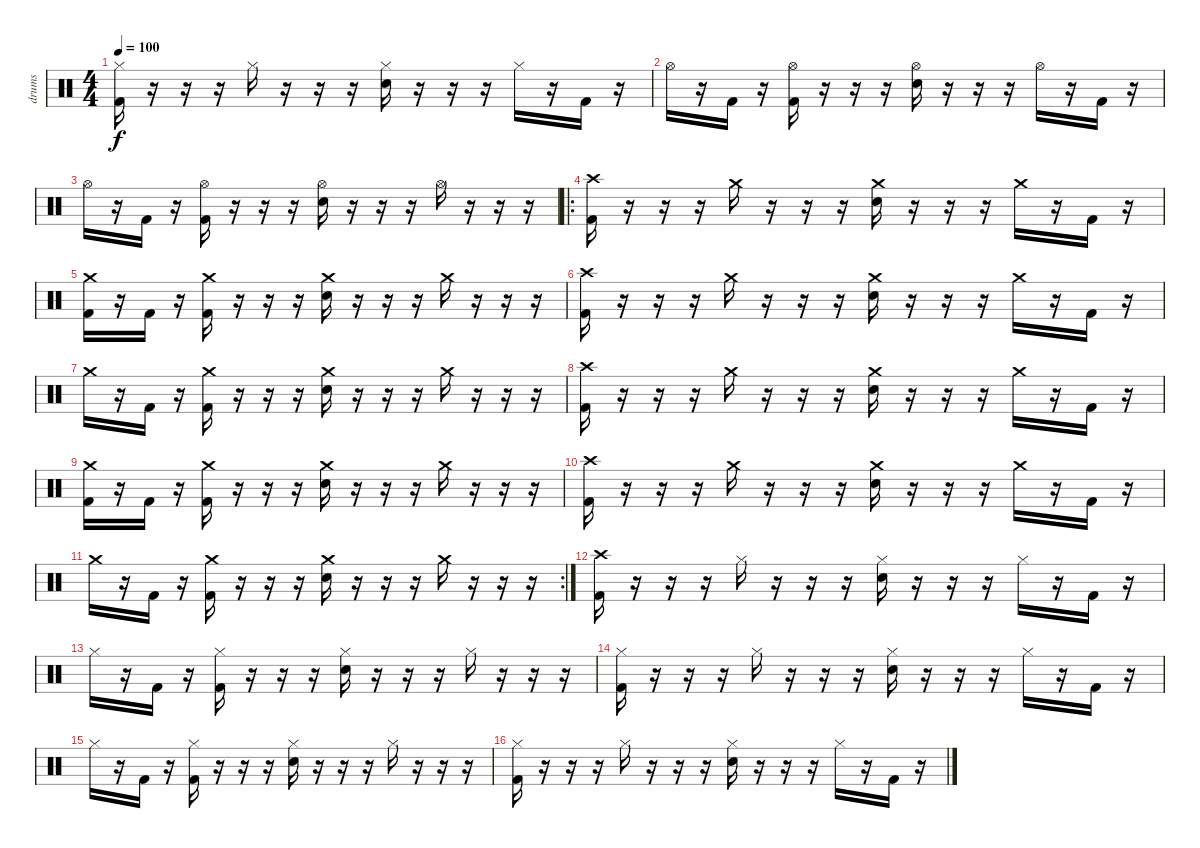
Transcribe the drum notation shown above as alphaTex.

\track ("drums" "drums") {instrument percussion}
\staff {score}
\articulation defaults
\ts (4 4)
\tempo 100
\clef neutral
\ks c
("Hi-Hat (closed)" "Kick (hit) 2").16{dy f} r.16 r.16 r.16 "Hi-Hat (closed)".16 r.16 r.16 r.16 ("Hi-Hat (closed)" "Snare (hit) 2").16 r.16 r.16 r.16 "Hi-Hat (closed)".16 r.16 "Kick (hit) 2".16 r.16 |
"Hi-Hat (open)".16 r.16 "Kick (hit) 2".16 r.16 ("Hi-Hat (open)" "Kick (hit) 2").16 r.16 r.16 r.16 ("Hi-Hat (open)" "Snare (hit) 2").16 r.16 r.16 r.16 "Hi-Hat (open)".16 r.16 "Kick (hit) 2".16 r.16 |
"Hi-Hat (open)".16 r.16 "Kick (hit) 2".16 r.16 ("Hi-Hat (open)" "Kick (hit) 2").16 r.16 r.16 r.16 ("Hi-Hat (open)" "Snare (hit) 2").16 r.16 r.16 r.16 "Hi-Hat (open)".16 r.16 r.16 r.16 |
\ro
("Crash high (hit)" "Kick (hit) 2").16 r.16 r.16 r.16 "Crash medium (hit)".16 r.16 r.16 r.16 ("Crash medium (hit)" "Snare (hit) 2").16 r.16 r.16 r.16 "Crash medium (hit)".16 r.16 "Kick (hit) 2".16 r.16 |
("Crash medium (hit)" "Kick (hit) 2").16 r.16 "Kick (hit) 2".16 r.16 ("Crash medium (hit)" "Kick (hit) 2").16 r.16 r.16 r.16 ("Crash medium (hit)" "Snare (hit) 2").16 r.16 r.16 r.16 "Crash medium (hit)".16 r.16 r.16 r.16 |
("Crash high (hit)" "Kick (hit) 2").16 r.16 r.16 r.16 "Crash medium (hit)".16 r.16 r.16 r.16 ("Crash medium (hit)" "Snare (hit) 2").16 r.16 r.16 r.16 "Crash medium (hit)".16 r.16 "Kick (hit) 2".16 r.16 |
"Crash medium (hit)".16 r.16 "Kick (hit) 2".16 r.16 ("Crash medium (hit)" "Kick (hit) 2").16 r.16 r.16 r.16 ("Crash medium (hit)" "Snare (hit) 2").16 r.16 r.16 r.16 "Crash medium (hit)".16 r.16 r.16 r.16 |
("Crash high (hit)" "Kick (hit) 2").16 r.16 r.16 r.16 "Crash medium (hit)".16 r.16 r.16 r.16 ("Crash medium (hit)" "Snare (hit) 2").16 r.16 r.16 r.16 "Crash medium (hit)".16 r.16 "Kick (hit) 2".16 r.16 |
("Crash medium (hit)" "Kick (hit) 2").16 r.16 "Kick (hit) 2".16 r.16 ("Crash medium (hit)" "Kick (hit) 2").16 r.16 r.16 r.16 ("Crash medium (hit)" "Snare (hit) 2").16 r.16 r.16 r.16 "Crash medium (hit)".16 r.16 r.16 r.16 |
("Crash high (hit)" "Kick (hit) 2").16 r.16 r.16 r.16 "Crash medium (hit)".16 r.16 r.16 r.16 ("Crash medium (hit)" "Snare (hit) 2").16 r.16 r.16 r.16 "Crash medium (hit)".16 r.16 "Kick (hit) 2".16 r.16 |
\rc 2 "Crash medium (hit)".16
r.16 "Kick (hit) 2".16 r.16 ("Crash medium (hit)" "Kick (hit) 2").16 r.16 r.16 r.16 ("Crash medium (hit)" "Snare (hit) 2").16 r.16 r.16 r.16 "Crash medium (hit)".16 r.16 r.16 r.16 |
("Crash high (hit)" "Kick (hit) 2").16 r.16 r.16 r.16 "Hi-Hat (closed)".16 r.16 r.16 r.16 ("Hi-Hat (closed)" "Snare (hit) 2").16 r.16 r.16 r.16 "Hi-Hat (closed)".16 r.16 "Kick (hit) 2".16 r.16 |
"Hi-Hat (closed)".16 r.16 "Kick (hit) 2".16 r.16 ("Hi-Hat (closed)" "Kick (hit) 2").16 r.16 r.16 r.16 ("Hi-Hat (closed)" "Snare (hit) 2").16 r.16 r.16 r.16 "Hi-Hat (closed)".16 r.16 r.16 r.16 |
("Hi-Hat (closed)" "Kick (hit) 2").16 r.16 r.16 r.16 "Hi-Hat (closed)".16 r.16 r.16 r.16 ("Hi-Hat (closed)" "Snare (hit) 2").16 r.16 r.16 r.16 "Hi-Hat (closed)".16 r.16 "Kick (hit) 2".16 r.16 |
"Hi-Hat (closed)".16 r.16 "Kick (hit) 2".16 r.16 ("Hi-Hat (closed)" "Kick (hit) 2").16 r.16 r.16 r.16 ("Hi-Hat (closed)" "Snare (hit) 2").16 r.16 r.16 r.16 "Hi-Hat (closed)".16 r.16 r.16 r.16 |
("Hi-Hat (closed)" "Kick (hit) 2").16 r.16 r.16 r.16 "Hi-Hat (closed)".16 r.16 r.16 r.16 ("Hi-Hat (closed)" "Snare (hit) 2").16 r.16 r.16 r.16 "Hi-Hat (closed)".16 r.16 "Kick (hit) 2".16 r.16
